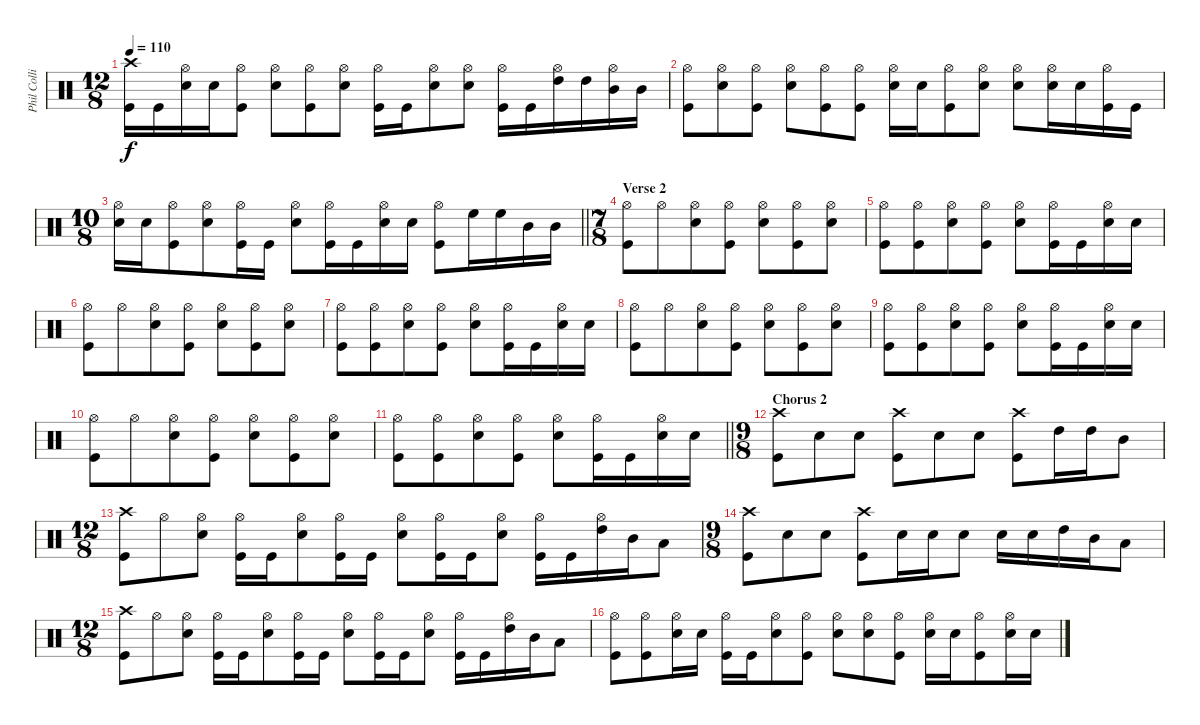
\track ("Phil Collins" "Phil Colli") {instrument percussion}
\staff {score}
\articulation defaults
\ts (12 8)
\tempo 110
\clef neutral
\ks c
("Kick (hit)" "Crash high (hit)").16{dy f} "Kick (hit)".16 ("Snare (hit) 2" "Hi-Hat (open)").16 "Snare (hit) 2".16 ("Kick (hit)" "Hi-Hat (open)").8 ("Snare (hit) 2" "Hi-Hat (open)").8 ("Kick (hit)" "Hi-Hat (open)").8 ("Snare (hit) 2" "Hi-Hat (open)").8 ("Kick (hit)" "Hi-Hat (open)").16 "Kick (hit)".16 ("Snare (hit) 2" "Hi-Hat (open)").8 ("Snare (hit) 2" "Hi-Hat (open)").8 ("Kick (hit)" "Hi-Hat (open)").16 "Kick (hit)".16 ("High Tom (hit)" "Hi-Hat (open)").16 "High Tom (hit)".16 ("Mid Tom (hit)" "Hi-Hat (open)").16 "Mid Tom (hit)".16 |
("Kick (hit)" "Hi-Hat (open)").8 ("Snare (hit) 2" "Hi-Hat (open)").8 ("Kick (hit)" "Hi-Hat (open)").8 ("Snare (hit) 2" "Hi-Hat (open)").8 ("Hi-Hat (open)" "Kick (hit)").8 ("Hi-Hat (open)" "Kick (hit)").8 ("Snare (hit) 2" "Hi-Hat (open)").16 "Snare (hit) 2".16 ("Kick (hit)" "Hi-Hat (open)").8 ("Snare (hit) 2" "Hi-Hat (open)").8 ("Snare (hit) 2" "Hi-Hat (open)").8 ("Snare (hit) 2" "Hi-Hat (open)").16 "Snare (hit) 2".16 ("Kick (hit)" "Hi-Hat (open)").16 "Kick (hit)".16 |
\ts (10 8)
\barLineRight lightlight
("Hi-Hat (open)" "Snare (hit) 2").16 "Snare (hit) 2".16 ("Kick (hit)" "Hi-Hat (open)").8 ("Snare (hit) 2" "Hi-Hat (open)").8 ("Kick (hit)" "Hi-Hat (open)").16 "Kick (hit)".16 ("Snare (hit) 2" "Hi-Hat (open)").8 ("Kick (hit)" "Hi-Hat (open)").16 "Kick (hit)".16 ("Snare (hit) 2" "Hi-Hat (open)").16 "Snare (hit) 2".16 ("Kick (hit)" "Hi-Hat (open)").8 "High Floor Tom (hit)".16 "High Floor Tom (hit)".16 "Mid Tom (hit)".16 "Mid Tom (hit)".16 |
\ts (7 8)
\section ("" "Verse 2")
("Kick (hit)" "Hi-Hat (open)").8 "Hi-Hat (open)".8 ("Hi-Hat (open)" "Snare (hit) 2").8 ("Hi-Hat (open)" "Kick (hit)").8 ("Hi-Hat (open)" "Snare (hit) 2").8 ("Hi-Hat (open)" "Kick (hit)").8 ("Hi-Hat (open)" "Snare (hit) 2").8 |
("Kick (hit)" "Hi-Hat (open)").8 ("Hi-Hat (open)" "Kick (hit)").8 ("Snare (hit) 2" "Hi-Hat (open)").8 ("Kick (hit)" "Hi-Hat (open)").8 ("Snare (hit) 2" "Hi-Hat (open)").8 ("Hi-Hat (open)" "Kick (hit)").16 "Kick (hit)".16 ("Snare (hit) 2" "Hi-Hat (open)").16 "Snare (hit) 2".16 |
("Kick (hit)" "Hi-Hat (open)").8 "Hi-Hat (open)".8 ("Hi-Hat (open)" "Snare (hit) 2").8 ("Hi-Hat (open)" "Kick (hit)").8 ("Hi-Hat (open)" "Snare (hit) 2").8 ("Hi-Hat (open)" "Kick (hit)").8 ("Hi-Hat (open)" "Snare (hit) 2").8 |
("Kick (hit)" "Hi-Hat (open)").8 ("Hi-Hat (open)" "Kick (hit)").8 ("Snare (hit) 2" "Hi-Hat (open)").8 ("Kick (hit)" "Hi-Hat (open)").8 ("Snare (hit) 2" "Hi-Hat (open)").8 ("Hi-Hat (open)" "Kick (hit)").16 "Kick (hit)".16 ("Snare (hit) 2" "Hi-Hat (open)").16 "Snare (hit) 2".16 |
("Kick (hit)" "Hi-Hat (open)").8 "Hi-Hat (open)".8 ("Hi-Hat (open)" "Snare (hit) 2").8 ("Hi-Hat (open)" "Kick (hit)").8 ("Hi-Hat (open)" "Snare (hit) 2").8 ("Hi-Hat (open)" "Kick (hit)").8 ("Hi-Hat (open)" "Snare (hit) 2").8 |
("Kick (hit)" "Hi-Hat (open)").8 ("Hi-Hat (open)" "Kick (hit)").8 ("Snare (hit) 2" "Hi-Hat (open)").8 ("Kick (hit)" "Hi-Hat (open)").8 ("Snare (hit) 2" "Hi-Hat (open)").8 ("Hi-Hat (open)" "Kick (hit)").16 "Kick (hit)".16 ("Snare (hit) 2" "Hi-Hat (open)").16 "Snare (hit) 2".16 |
("Kick (hit)" "Hi-Hat (open)").8 "Hi-Hat (open)".8 ("Hi-Hat (open)" "Snare (hit) 2").8 ("Hi-Hat (open)" "Kick (hit)").8 ("Hi-Hat (open)" "Snare (hit) 2").8 ("Hi-Hat (open)" "Kick (hit)").8 ("Hi-Hat (open)" "Snare (hit) 2").8 |
\barLineRight lightlight
("Kick (hit)" "Hi-Hat (open)").8 ("Hi-Hat (open)" "Kick (hit)").8 ("Snare (hit) 2" "Hi-Hat (open)").8 ("Kick (hit)" "Hi-Hat (open)").8 ("Snare (hit) 2" "Hi-Hat (open)").8 ("Hi-Hat (open)" "Kick (hit)").16 "Kick (hit)".16 ("Snare (hit) 2" "Hi-Hat (open)").16 "Snare (hit) 2".16 |
\ts (9 8)
\section ("" "Chorus 2")
("Kick (hit)" "Crash high (hit)").8 "Snare (hit) 2".8 "Snare (hit) 2".8 ("Kick (hit)" "Crash high (hit)").8 "Snare (hit) 2".8 "Snare (hit) 2".8 ("Kick (hit)" "Crash high (hit)").8 "High Tom (hit)".16 "High Tom (hit)".16 "Mid Tom (hit)".8 |
\ts (12 8)
("Kick (hit)" "Crash high (hit)").8 "Hi-Hat (open)".8 ("Snare (hit) 2" "Hi-Hat (open)").8 ("Hi-Hat (open)" "Kick (hit)").16 "Kick (hit)".16 ("Hi-Hat (open)" "Snare (hit) 2").8 ("Hi-Hat (open)" "Kick (hit)").16 "Kick (hit)".16 ("Hi-Hat (open)" "Snare (hit) 2").8 ("Hi-Hat (open)" "Kick (hit)").16 "Kick (hit)".16 ("Hi-Hat (open)" "Snare (hit) 2").8 ("Hi-Hat (open)" "Kick (hit)").16 "Kick (hit)".16 ("Hi-Hat (open)" "High Tom (hit)").16 "Mid Tom (hit)".16 "Low Tom (hit)".8 |
\ts (9 8)
("Kick (hit)" "Crash high (hit)").8 "Snare (hit) 2".8 "Snare (hit) 2".8 ("Kick (hit)" "Crash high (hit)").8 "Snare (hit) 2".16 "Snare (hit) 2".16 "Snare (hit) 2".8 "Snare (hit) 2".16 "Snare (hit) 2".16 "High Tom (hit)".16 "Mid Tom (hit)".16 "Low Tom (hit)".8 |
\ts (12 8)
("Kick (hit)" "Crash high (hit)").8 "Hi-Hat (open)".8 ("Snare (hit) 2" "Hi-Hat (open)").8 ("Hi-Hat (open)" "Kick (hit)").16 "Kick (hit)".16 ("Hi-Hat (open)" "Snare (hit) 2").8 ("Hi-Hat (open)" "Kick (hit)").16 "Kick (hit)".16 ("Hi-Hat (open)" "Snare (hit) 2").8 ("Hi-Hat (open)" "Kick (hit)").16 "Kick (hit)".16 ("Hi-Hat (open)" "Snare (hit) 2").8 ("Hi-Hat (open)" "Kick (hit)").16 "Kick (hit)".16 ("Hi-Hat (open)" "High Tom (hit)").16 "Mid Tom (hit)".16 "Low Tom (hit)".8 |
("Kick (hit)" "Hi-Hat (open)").8 ("Hi-Hat (open)" "Kick (hit)").8 ("Hi-Hat (open)" "Snare (hit) 2").16 "Snare (hit) 2".16 ("Kick (hit)" "Hi-Hat (open)").16 "Kick (hit)".16 ("Snare (hit) 2" "Hi-Hat (open)").8 ("Kick (hit)" "Hi-Hat (open)").8 ("Snare (hit) 2" "Hi-Hat (open)").8 ("Snare (hit) 2" "Hi-Hat (open)").8 ("Kick (hit)" "Hi-Hat (open)").8 ("Snare (hit) 2" "Hi-Hat (open)").16 "Snare (hit) 2".16 ("Kick (hit)" "Hi-Hat (open)").8 ("Snare (hit) 2" "Hi-Hat (open)").16 "Snare (hit) 2".16
